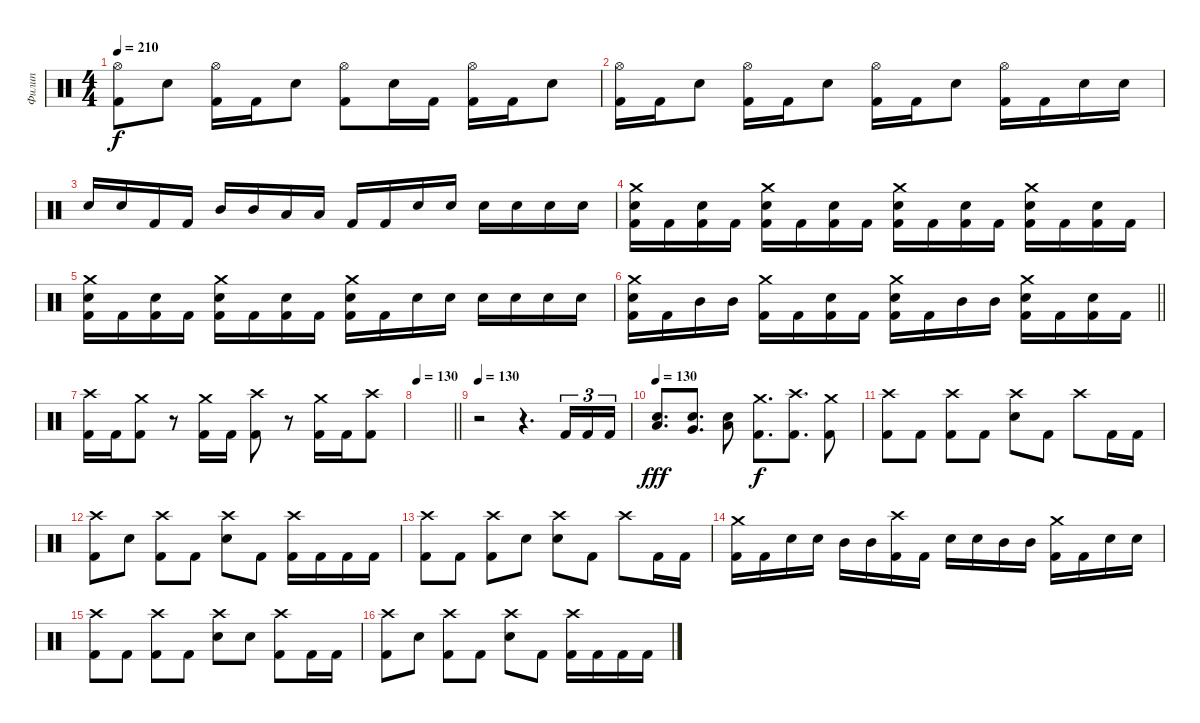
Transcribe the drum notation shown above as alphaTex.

\track ("Филип" "Филип") {instrument percussion}
\staff {score}
\articulation defaults
\ts (4 4)
\tempo 210
\clef neutral
\ks c
("Hi-Hat (open)" "Kick (hit) 2").8{dy f} "Electric Snare (hit)".8 ("Hi-Hat (open)" "Kick (hit) 2").16 "Kick (hit) 2".16 "Electric Snare (hit)".8 ("Hi-Hat (open)" "Kick (hit) 2").8 "Electric Snare (hit)".16 "Kick (hit) 2".16 ("Hi-Hat (open)" "Kick (hit) 2").16 "Kick (hit) 2".16 "Electric Snare (hit)".8 |
("Hi-Hat (open)" "Kick (hit) 2").16 "Kick (hit) 2".16 "Electric Snare (hit)".8 ("Hi-Hat (open)" "Kick (hit) 2").16 "Kick (hit) 2".16 "Electric Snare (hit)".8 ("Hi-Hat (open)" "Kick (hit) 2").16 "Kick (hit) 2".16 "Electric Snare (hit)".8 ("Hi-Hat (open)" "Kick (hit) 2").16 "Kick (hit) 2".16 "Electric Snare (hit)".16 "Electric Snare (hit)".16 |
"Electric Snare (hit)".16 "Electric Snare (hit)".16 "Kick (hit) 2".16 "Kick (hit) 2".16 "Mid Tom (hit)".16 "Mid Tom (hit)".16 "Low Tom (hit)".16 "Low Tom (hit)".16 "Kick (hit) 2".16 "Kick (hit) 2".16 "Electric Snare (hit)".16 "Electric Snare (hit)".16 "Electric Snare (hit)".16 "Electric Snare (hit)".16 "Electric Snare (hit)".16 "Electric Snare (hit)".16 |
("Crash medium (hit)" "Electric Snare (hit)" "Kick (hit) 2").16 "Kick (hit) 2".16 ("Electric Snare (hit)" "Kick (hit) 2").16 "Kick (hit) 2".16 ("Crash medium (hit)" "Electric Snare (hit)" "Kick (hit) 2").16 "Kick (hit) 2".16 ("Electric Snare (hit)" "Kick (hit) 2").16 "Kick (hit) 2".16 ("Crash medium (hit)" "Electric Snare (hit)" "Kick (hit) 2").16 "Kick (hit) 2".16 ("Electric Snare (hit)" "Kick (hit) 2").16 "Kick (hit) 2".16 ("Crash medium (hit)" "Electric Snare (hit)" "Kick (hit) 2").16 "Kick (hit) 2".16 ("Electric Snare (hit)" "Kick (hit) 2").16 "Kick (hit) 2".16 |
("Crash medium (hit)" "Electric Snare (hit)" "Kick (hit) 2").16 "Kick (hit) 2".16 ("Electric Snare (hit)" "Kick (hit) 2").16 "Kick (hit) 2".16 ("Crash medium (hit)" "Electric Snare (hit)" "Kick (hit) 2").16 "Kick (hit) 2".16 ("Electric Snare (hit)" "Kick (hit) 2").16 "Kick (hit) 2".16 ("Crash medium (hit)" "Electric Snare (hit)" "Kick (hit) 2").16 "Kick (hit) 2".16 "Electric Snare (hit)".16 "Electric Snare (hit)".16 "Electric Snare (hit)".16 "Electric Snare (hit)".16 "Electric Snare (hit)".16 "Electric Snare (hit)".16 |
\barLineRight lightlight
("Crash medium (hit)" "Electric Snare (hit)" "Kick (hit) 2").16 "Kick (hit) 2".16 "Mid Tom (hit)".16 "Mid Tom (hit)".16 ("Crash medium (hit)" "Kick (hit) 2").16 "Kick (hit) 2".16 ("Electric Snare (hit)" "Kick (hit) 2").16 "Kick (hit) 2".16 ("Crash medium (hit)" "Electric Snare (hit)" "Kick (hit) 2").16 "Kick (hit) 2".16 "Mid Tom (hit)".16 "Mid Tom (hit)".16 ("Crash medium (hit)" "Electric Snare (hit)" "Kick (hit) 2").16 "Kick (hit) 2".16 ("Electric Snare (hit)" "Kick (hit) 2").16 "Kick (hit) 2".16 |
("Crash high (hit)" "Kick (hit) 2").16 "Kick (hit) 2".16 ("Crash medium (hit)" "Kick (hit) 2").8 r.8 ("Crash medium (hit)" "Kick (hit) 2").16 "Kick (hit) 2".16 ("Crash high (hit)" "Kick (hit) 2").8 r.8 ("Crash medium (hit)" "Kick (hit) 2").16 "Kick (hit) 2".16 ("Crash high (hit)" "Kick (hit) 2").8 |
\tempo 130
\barLineRight lightlight
|
\tempo 130
r.2 r.4{d} "Kick (hit) 2".16{tu (3 2)} "Kick (hit) 2".16{tu (3 2)} "Kick (hit) 2".16{tu (3 2)} |
\tempo 130
("Low Floor Tom (hit)" "Electric Snare (hit)").8{d dy fff} ("Very Low Tom (hit)" "Electric Snare (hit)").8{d} ("Low Tom (hit)" "Electric Snare (hit)").8 ("Crash medium (hit)" "Kick (hit) 2").8{d dy f} ("Crash high (hit)" "Kick (hit) 2").8{d} ("Crash medium (hit)" "Kick (hit) 2").8 |
("Crash high (hit)" "Kick (hit) 2").8 "Kick (hit) 2".8 ("Crash high (hit)" "Kick (hit) 2").8 "Kick (hit) 2".8 ("Crash high (hit)" "Electric Snare (hit)").8 "Kick (hit) 2".8 "Crash high (hit)".8 "Kick (hit) 2".16 "Kick (hit) 2".16 |
("Crash high (hit)" "Kick (hit) 2").8 "Electric Snare (hit)".8 ("Crash high (hit)" "Kick (hit) 2").8 "Kick (hit) 2".8 ("Crash high (hit)" "Electric Snare (hit)").8 "Kick (hit) 2".8 ("Crash high (hit)" "Kick (hit) 2").16 "Kick (hit) 2".16 "Kick (hit) 2".16 "Kick (hit) 2".16 |
("Crash high (hit)" "Kick (hit) 2").8 "Kick (hit) 2".8 ("Crash high (hit)" "Kick (hit) 2").8 "Electric Snare (hit)".8 ("Crash high (hit)" "Electric Snare (hit)").8 "Kick (hit) 2".8 "Crash high (hit)".8 "Kick (hit) 2".16 "Kick (hit) 2".16 |
("Crash medium (hit)" "Kick (hit) 2").16 "Kick (hit) 2".16 "Electric Snare (hit)".16 "Electric Snare (hit)".16 "Mid Tom (hit)".16 "Mid Tom (hit)".16 ("Crash high (hit)" "Kick (hit) 2").16 "Kick (hit) 2".16 "Electric Snare (hit)".16 "Electric Snare (hit)".16 "Mid Tom (hit)".16 "Mid Tom (hit)".16 ("Crash medium (hit)" "Kick (hit) 2").16 "Kick (hit) 2".16 "Electric Snare (hit)".16 "Electric Snare (hit)".16 |
("Crash high (hit)" "Kick (hit) 2").8 "Kick (hit) 2".8 ("Crash high (hit)" "Kick (hit) 2").8 "Kick (hit) 2".8 ("Crash high (hit)" "Electric Snare (hit)").8 "Electric Snare (hit)".8 ("Crash high (hit)" "Kick (hit) 2").8 "Kick (hit) 2".16 "Kick (hit) 2".16 |
("Crash high (hit)" "Kick (hit) 2").8 "Electric Snare (hit)".8 ("Crash high (hit)" "Kick (hit) 2").8 "Kick (hit) 2".8 ("Crash high (hit)" "Electric Snare (hit)").8 "Kick (hit) 2".8 ("Crash high (hit)" "Kick (hit) 2").16 "Kick (hit) 2".16 "Kick (hit) 2".16 "Kick (hit) 2".16
